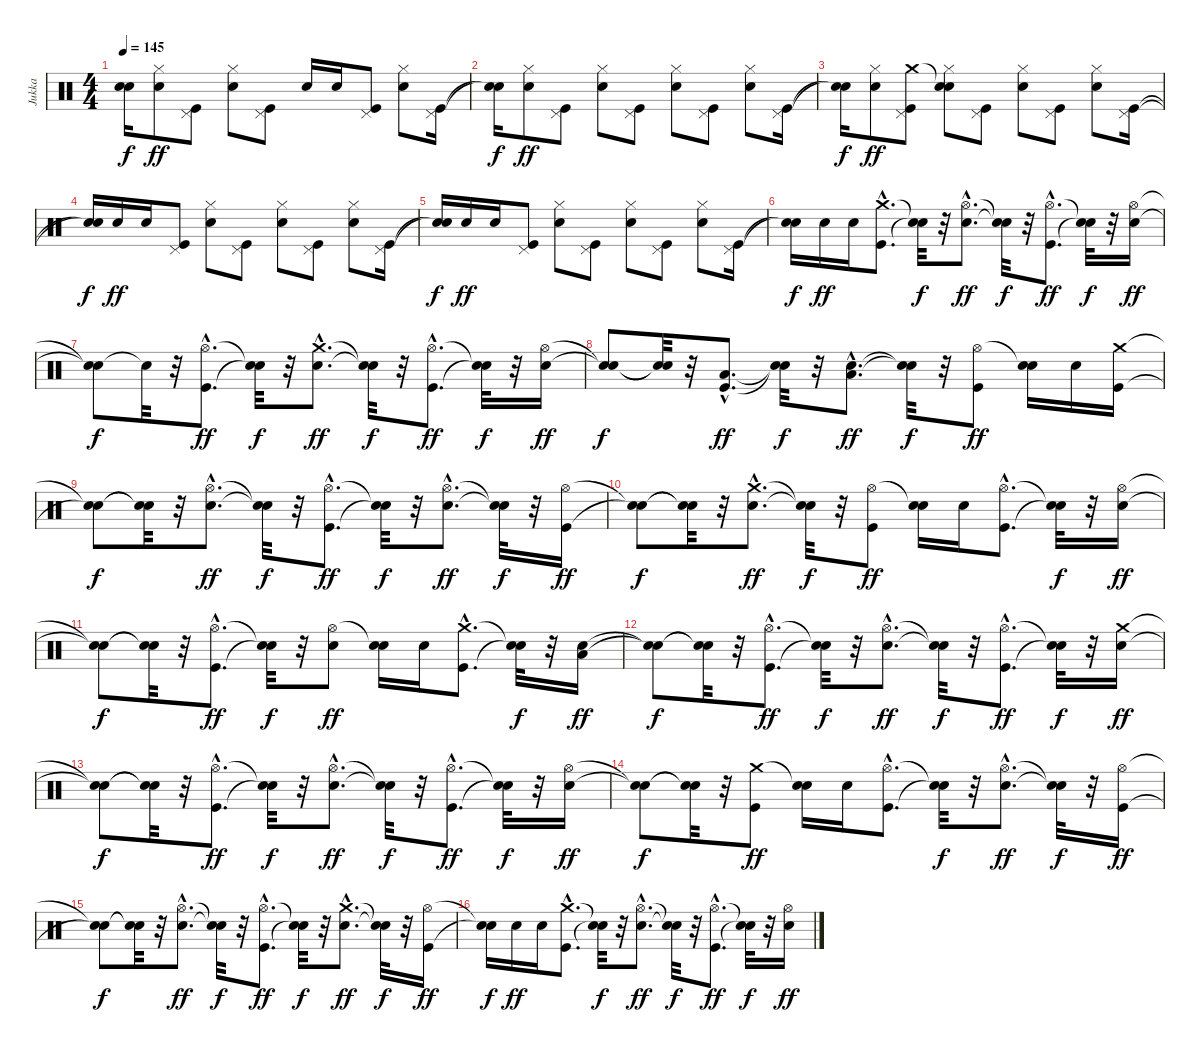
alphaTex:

\track ("Jukka" "Jukka") {instrument percussion}
\staff {score}
\articulation defaults
\ts (4 4)
\tempo 145
\clef neutral
\ks c
("Snare (hit)"{t} "Snare (hit)"{t}).16{dy f} ("Electric Snare (hit)" "Hi-Hat (closed)").8{dy ff} ("Kick (hit)" "Pedal Hi-Hat (hit)").8 ("Electric Snare (hit)" "Hi-Hat (closed)").8 ("Kick (hit)" "Pedal Hi-Hat (hit)").8 "Electric Snare (hit)".16 "Electric Snare (hit)".16 ("Kick (hit)" "Pedal Hi-Hat (hit)").8 ("Electric Snare (hit)" "Hi-Hat (closed)").8 ("Kick (hit)" "Pedal Hi-Hat (hit)").16 |
("Snare (hit)"{t} "Snare (hit)"{t}).16{dy f} ("Electric Snare (hit)" "Hi-Hat (closed)").8{dy ff} ("Kick (hit)" "Pedal Hi-Hat (hit)").8 ("Electric Snare (hit)" "Hi-Hat (closed)").8 ("Kick (hit)" "Pedal Hi-Hat (hit)").8 ("Electric Snare (hit)" "Hi-Hat (closed)").8 ("Kick (hit)" "Pedal Hi-Hat (hit)").8 ("Electric Snare (hit)" "Hi-Hat (closed)").8 ("Kick (hit)" "Pedal Hi-Hat (hit)").16 |
("Snare (hit)"{t} "Snare (hit)"{t}).16{dy f} ("Electric Snare (hit)" "Hi-Hat (closed)").8{dy ff} ("Kick (hit)" "Pedal Hi-Hat (hit)" "Crash medium (hit)").8 ("Electric Snare (hit)" "Hi-Hat (closed)" "Snare (hit)"{t}).8 ("Kick (hit)" "Pedal Hi-Hat (hit)").8 ("Electric Snare (hit)" "Hi-Hat (closed)").8 ("Kick (hit)" "Pedal Hi-Hat (hit)").8 ("Electric Snare (hit)" "Hi-Hat (closed)").8 ("Kick (hit)" "Pedal Hi-Hat (hit)").16 |
("Snare (hit)"{t} "Snare (hit)"{t}).16{dy f} "Electric Snare (hit)".16{dy ff} "Electric Snare (hit)".16 ("Kick (hit)" "Pedal Hi-Hat (hit)").8 ("Electric Snare (hit)" "Hi-Hat (closed)").8 ("Kick (hit)" "Pedal Hi-Hat (hit)").8 ("Electric Snare (hit)" "Hi-Hat (closed)").8 ("Kick (hit)" "Pedal Hi-Hat (hit)").8 ("Electric Snare (hit)" "Hi-Hat (closed)").8 ("Kick (hit)" "Pedal Hi-Hat (hit)").16 |
("Snare (hit)"{t} "Snare (hit)"{t}).16{dy f} "Electric Snare (hit)".16{dy ff} "Electric Snare (hit)".16 ("Kick (hit)" "Pedal Hi-Hat (hit)").8 ("Electric Snare (hit)" "Hi-Hat (closed)").8 ("Kick (hit)" "Pedal Hi-Hat (hit)").8 ("Electric Snare (hit)" "Hi-Hat (closed)").8 ("Kick (hit)" "Pedal Hi-Hat (hit)").8 ("Electric Snare (hit)" "Hi-Hat (closed)").8 ("Kick (hit)" "Pedal Hi-Hat (hit)").16 |
("Snare (hit)"{t} "Snare (hit)"{t}).16{dy f} "Electric Snare (hit)".16{dy ff} "Electric Snare (hit)".16 ("Kick (hit)"{hac} "Crash medium (hit)"{hac}).8{d} ("Snare (hit)"{t} "Snare (hit)"{t}).32{dy f} r.32 ("Electric Snare (hit)"{hac} "Hi-Hat (open)"{hac}).8{d dy ff} ("Snare (hit)"{t} "Snare (hit)"{t}).32{dy f} r.32 ("Kick (hit)"{hac} "Hi-Hat (open)"{hac}).8{d dy ff} ("Snare (hit)"{t} "Snare (hit)"{t}).32{dy f} r.32 ("Electric Snare (hit)" "Hi-Hat (open)").16{dy ff} |
("Snare (hit)"{t} "Snare (hit)"{t}).8{dy f} "Snare (hit)"{t}.32 r.32 ("Kick (hit)"{hac} "Hi-Hat (open)"{hac}).8{d dy ff} ("Snare (hit)"{t} "Snare (hit)"{t}).32{dy f} r.32 ("Electric Snare (hit)"{hac} "Crash medium (hit)"{hac}).8{d dy ff} ("Snare (hit)"{t} "Snare (hit)"{t}).32{dy f} r.32 ("Kick (hit)"{hac} "Hi-Hat (open)"{hac}).8{d dy ff} ("Snare (hit)"{t} "Snare (hit)"{t}).32{dy f} r.32 ("Electric Snare (hit)" "Hi-Hat (open)").16{dy ff} |
("Snare (hit)"{t} "Snare (hit)"{t}).8{dy f} ("Snare (hit)"{t} "Snare (hit)"{t}).32 r.32 ("Kick (hit)"{hac} "Low Tom (hit)"{hac}).8{d dy ff} ("Snare (hit)"{t} "Snare (hit)"{t}).32{dy f} r.32 ("Electric Snare (hit)"{hac} "Low Tom (hit)"{hac}).8{d dy ff} ("Snare (hit)"{t} "Snare (hit)"{t}).32{dy f} r.32 ("Kick (hit)" "Hi-Hat (open)").8{dy ff} ("Electric Snare (hit)" "Snare (hit)"{t}).16 "Electric Snare (hit)".16 ("Kick (hit)" "Crash medium (hit)").16 |
("Snare (hit)"{t} "Snare (hit)"{t}).8{dy f} ("Snare (hit)"{t} "Snare (hit)"{t}).32 r.32 ("Electric Snare (hit)"{hac} "Hi-Hat (open)"{hac}).8{d dy ff} ("Snare (hit)"{t} "Snare (hit)"{t}).32{dy f} r.32 ("Kick (hit)"{hac} "Hi-Hat (open)"{hac}).8{d dy ff} ("Snare (hit)"{t} "Snare (hit)"{t}).32{dy f} r.32 ("Electric Snare (hit)"{hac} "Hi-Hat (open)"{hac}).8{d dy ff} ("Snare (hit)"{t} "Snare (hit)"{t}).32{dy f} r.32 ("Kick (hit)" "Hi-Hat (open)").16{dy ff} |
("Snare (hit)"{t} "Snare (hit)"{t}).8{dy f} ("Snare (hit)"{t} "Snare (hit)"{t}).32 r.32 ("Electric Snare (hit)"{hac} "Crash medium (hit)"{hac}).8{d dy ff} ("Snare (hit)"{t} "Snare (hit)"{t}).32{dy f} r.32 ("Kick (hit)" "Hi-Hat (open)").8{dy ff} ("Electric Snare (hit)" "Snare (hit)"{t}).16 "Electric Snare (hit)".16 ("Kick (hit)"{hac} "Hi-Hat (open)"{hac}).8{d} ("Snare (hit)"{t} "Snare (hit)"{t}).32{dy f} r.32 ("Electric Snare (hit)" "Hi-Hat (open)").16{dy ff} |
("Snare (hit)"{t} "Snare (hit)"{t}).8{dy f} ("Snare (hit)"{t} "Snare (hit)"{t}).32 r.32 ("Kick (hit)"{hac} "Hi-Hat (open)"{hac}).8{d dy ff} ("Snare (hit)"{t} "Snare (hit)"{t}).32{dy f} r.32 ("Electric Snare (hit)" "Hi-Hat (open)").8{dy ff} ("Electric Snare (hit)" "Snare (hit)"{t}).16 "Electric Snare (hit)".16 ("Kick (hit)"{hac} "Crash medium (hit)"{hac}).8{d} ("Snare (hit)"{t} "Snare (hit)"{t}).32{dy f} r.32 ("Electric Snare (hit)" "Low Tom (hit)").16{dy ff} |
("Snare (hit)"{t} "Snare (hit)"{t}).8{dy f} ("Snare (hit)"{t} "Snare (hit)"{t}).32 r.32 ("Kick (hit)"{hac} "Hi-Hat (open)"{hac}).8{d dy ff volume 15} ("Snare (hit)"{t} "Snare (hit)"{t}).32{dy f} r.32 ("Electric Snare (hit)"{hac} "Hi-Hat (open)"{hac}).8{d dy ff} ("Snare (hit)"{t} "Snare (hit)"{t}).32{dy f} r.32 ("Kick (hit)"{hac} "Hi-Hat (open)"{hac}).8{d dy ff} ("Snare (hit)"{t} "Snare (hit)"{t}).32{dy f} r.32 ("Electric Snare (hit)" "Crash medium (hit)").16{dy ff} |
("Snare (hit)"{t} "Snare (hit)"{t}).8{dy f} ("Snare (hit)"{t} "Snare (hit)"{t}).32 r.32 ("Kick (hit)"{hac} "Hi-Hat (open)"{hac}).8{d dy ff} ("Snare (hit)"{t} "Snare (hit)"{t}).32{dy f} r.32 ("Electric Snare (hit)"{hac} "Hi-Hat (open)"{hac}).8{d dy ff} ("Snare (hit)"{t} "Snare (hit)"{t}).32{dy f} r.32 ("Kick (hit)"{hac} "Hi-Hat (open)"{hac}).8{d dy ff} ("Snare (hit)"{t} "Snare (hit)"{t}).32{dy f} r.32 ("Electric Snare (hit)" "Hi-Hat (open)").16{dy ff} |
("Snare (hit)"{t} "Snare (hit)"{t}).8{dy f} ("Snare (hit)"{t} "Snare (hit)"{t}).32 r.32 ("Kick (hit)" "Crash medium (hit)").8{dy ff} ("Electric Snare (hit)" "Snare (hit)"{t}).16 "Electric Snare (hit)".16 ("Kick (hit)"{hac} "Hi-Hat (open)"{hac}).8{d} ("Snare (hit)"{t} "Snare (hit)"{t}).32{dy f} r.32 ("Electric Snare (hit)"{hac} "Hi-Hat (open)"{hac}).8{d dy ff} ("Snare (hit)"{t} "Snare (hit)"{t}).32{dy f} r.32 ("Kick (hit)" "Hi-Hat (open)").16{dy ff} |
("Snare (hit)"{t} "Snare (hit)"{t}).8{dy f} ("Snare (hit)"{t} "Snare (hit)"{t}).32 r.32 ("Electric Snare (hit)"{hac} "Hi-Hat (open)"{hac}).8{d dy ff} ("Snare (hit)"{t} "Snare (hit)"{t}).32{dy f} r.32 ("Kick (hit)"{hac} "Hi-Hat (open)"{hac}).8{d dy ff} ("Snare (hit)"{t} "Snare (hit)"{t}).32{dy f} r.32 ("Electric Snare (hit)"{hac} "Crash medium (hit)"{hac}).8{d dy ff} ("Snare (hit)"{t} "Snare (hit)"{t}).32{dy f} r.32 ("Kick (hit)" "Hi-Hat (open)").16{dy ff} |
("Snare (hit)"{t} "Snare (hit)"{t}).16{dy f} "Electric Snare (hit)".16{dy ff} "Electric Snare (hit)".16 ("Kick (hit)"{hac} "Crash medium (hit)"{hac}).8{d} ("Snare (hit)"{t} "Snare (hit)"{t}).32{dy f} r.32 ("Electric Snare (hit)"{hac} "Hi-Hat (open)"{hac}).8{d dy ff} ("Snare (hit)"{t} "Snare (hit)"{t}).32{dy f} r.32 ("Kick (hit)"{hac} "Hi-Hat (open)"{hac}).8{d dy ff} ("Snare (hit)"{t} "Snare (hit)"{t}).32{dy f} r.32 ("Electric Snare (hit)" "Hi-Hat (open)").16{dy ff}
